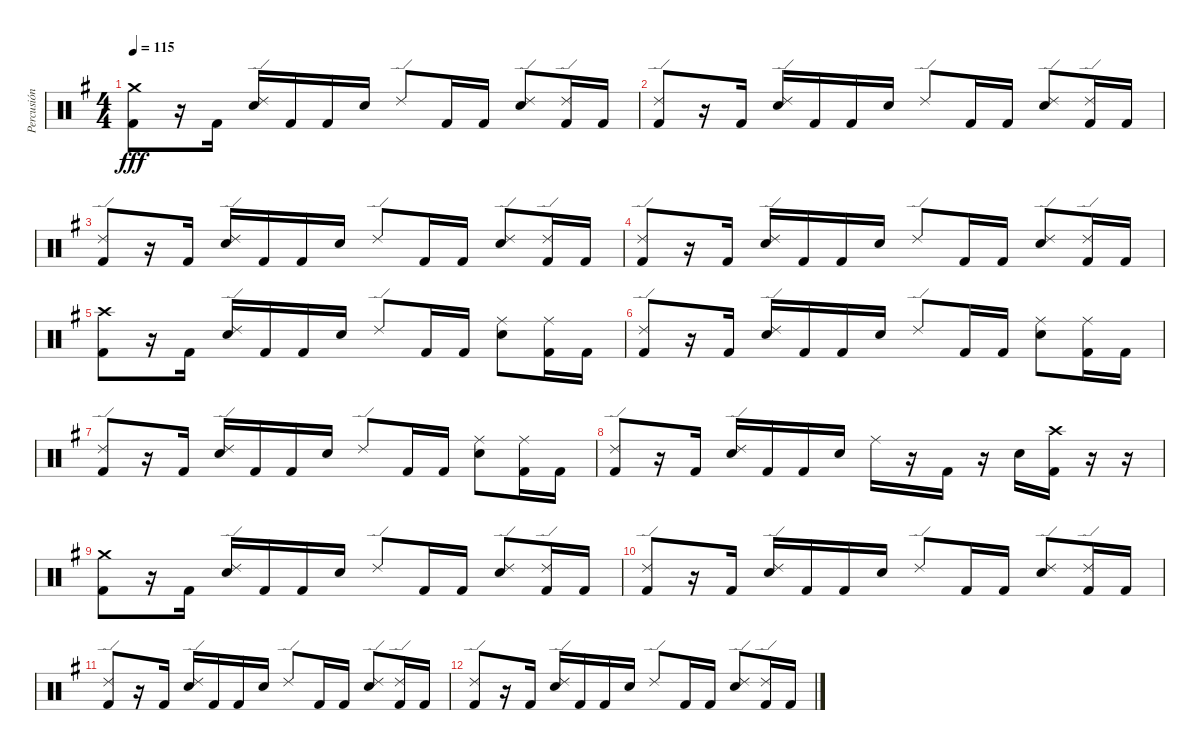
\track ("Percusión" "Percusión") {instrument percussion}
\staff {score}
\articulation defaults
\ts (4 4)
\tempo 115
\clef neutral
\ks g
("Crash medium (hit)" "Kick (hit) 2").8{dy fff} r.16 "Kick (hit) 2".16 ("Ride (edge) 2" "Electric Snare (hit)").16 "Kick (hit) 2".16 "Kick (hit) 2".16 "Electric Snare (hit)".16 "Ride (edge) 2".8 "Kick (hit) 2".16 "Kick (hit) 2".16 ("Ride (edge) 2" "Electric Snare (hit)").8 ("Ride (edge) 2" "Kick (hit) 2").16 "Kick (hit) 2".16 |
("Ride (edge) 2" "Kick (hit) 2").8 r.16 "Kick (hit) 2".16 ("Ride (edge) 2" "Electric Snare (hit)").16 "Kick (hit) 2".16 "Kick (hit) 2".16 "Electric Snare (hit)".16 "Ride (edge) 2".8 "Kick (hit) 2".16 "Kick (hit) 2".16 ("Ride (edge) 2" "Electric Snare (hit)").8 ("Ride (edge) 2" "Kick (hit) 2").16 "Kick (hit) 2".16 |
("Ride (edge) 2" "Kick (hit) 2").8 r.16 "Kick (hit) 2".16 ("Ride (edge) 2" "Electric Snare (hit)").16 "Kick (hit) 2".16 "Kick (hit) 2".16 "Electric Snare (hit)".16 "Ride (edge) 2".8 "Kick (hit) 2".16 "Kick (hit) 2".16 ("Ride (edge) 2" "Electric Snare (hit)").8 ("Ride (edge) 2" "Kick (hit) 2").16 "Kick (hit) 2".16 |
("Ride (edge) 2" "Kick (hit) 2").8 r.16 "Kick (hit) 2".16 ("Ride (edge) 2" "Electric Snare (hit)").16 "Kick (hit) 2".16 "Kick (hit) 2".16 "Electric Snare (hit)".16 "Ride (edge) 2".8 "Kick (hit) 2".16 "Kick (hit) 2".16 ("Ride (edge) 2" "Electric Snare (hit)").8 ("Ride (edge) 2" "Kick (hit) 2").16 "Kick (hit) 2".16 |
("Crash high (hit)" "Kick (hit) 2").8 r.16 "Kick (hit) 2".16 ("Ride (edge) 2" "Electric Snare (hit)").16 "Kick (hit) 2".16 "Kick (hit) 2".16 "Electric Snare (hit)".16 "Ride (edge) 2".8 "Kick (hit) 2".16 "Kick (hit) 2".16 ("Ride (middle)" "Electric Snare (hit)").8 ("Ride (middle)" "Kick (hit) 2").16 "Kick (hit) 2".16 |
("Ride (edge) 2" "Kick (hit) 2").8 r.16 "Kick (hit) 2".16 ("Ride (edge) 2" "Electric Snare (hit)").16 "Kick (hit) 2".16 "Kick (hit) 2".16 "Electric Snare (hit)".16 "Ride (edge) 2".8 "Kick (hit) 2".16 "Kick (hit) 2".16 ("Ride (middle)" "Electric Snare (hit)").8 ("Ride (middle)" "Kick (hit) 2").16 "Kick (hit) 2".16 |
("Ride (edge) 2" "Kick (hit) 2").8 r.16 "Kick (hit) 2".16 ("Ride (edge) 2" "Electric Snare (hit)").16 "Kick (hit) 2".16 "Kick (hit) 2".16 "Electric Snare (hit)".16 "Ride (edge) 2".8 "Kick (hit) 2".16 "Kick (hit) 2".16 ("Ride (middle)" "Electric Snare (hit)").8 ("Ride (middle)" "Kick (hit) 2").16 "Kick (hit) 2".16 |
("Ride (edge) 2" "Kick (hit) 2").8 r.16 "Kick (hit) 2".16 ("Ride (edge) 2" "Electric Snare (hit)").16 "Kick (hit) 2".16 "Kick (hit) 2".16 "Electric Snare (hit)".16 "Ride (middle)".16 r.16 "Kick (hit) 2".16 r.16 "Electric Snare (hit)".16 ("Crash high (hit)" "Kick (hit) 2").16 r.16 r.16 |
("Crash medium (hit)" "Kick (hit) 2").8 r.16 "Kick (hit) 2".16 ("Ride (edge) 2" "Electric Snare (hit)").16 "Kick (hit) 2".16 "Kick (hit) 2".16 "Electric Snare (hit)".16 "Ride (edge) 2".8 "Kick (hit) 2".16 "Kick (hit) 2".16 ("Ride (edge) 2" "Electric Snare (hit)").8 ("Ride (edge) 2" "Kick (hit) 2").16 "Kick (hit) 2".16 |
("Ride (edge) 2" "Kick (hit) 2").8 r.16 "Kick (hit) 2".16 ("Ride (edge) 2" "Electric Snare (hit)").16 "Kick (hit) 2".16 "Kick (hit) 2".16 "Electric Snare (hit)".16 "Ride (edge) 2".8 "Kick (hit) 2".16 "Kick (hit) 2".16 ("Ride (edge) 2" "Electric Snare (hit)").8 ("Ride (edge) 2" "Kick (hit) 2").16 "Kick (hit) 2".16 |
("Ride (edge) 2" "Kick (hit) 2").8 r.16 "Kick (hit) 2".16 ("Ride (edge) 2" "Electric Snare (hit)").16 "Kick (hit) 2".16 "Kick (hit) 2".16 "Electric Snare (hit)".16 "Ride (edge) 2".8 "Kick (hit) 2".16 "Kick (hit) 2".16 ("Ride (edge) 2" "Electric Snare (hit)").8 ("Ride (edge) 2" "Kick (hit) 2").16 "Kick (hit) 2".16 |
("Ride (edge) 2" "Kick (hit) 2").8 r.16 "Kick (hit) 2".16 ("Ride (edge) 2" "Electric Snare (hit)").16 "Kick (hit) 2".16 "Kick (hit) 2".16 "Electric Snare (hit)".16 "Ride (edge) 2".8 "Kick (hit) 2".16 "Kick (hit) 2".16 ("Ride (edge) 2" "Electric Snare (hit)").8 ("Ride (edge) 2" "Kick (hit) 2").16 "Kick (hit) 2".16
